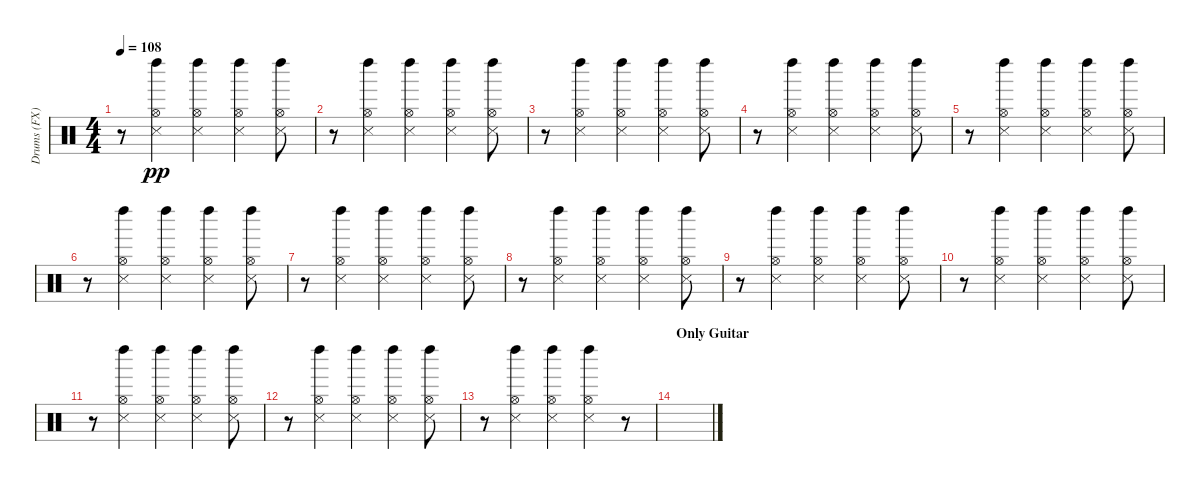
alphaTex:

\track ("Drums (FX)" "Drums (FX)") {instrument percussion}
\staff {score}
\articulation defaults
\ts (4 4)
\tempo 108
\clef neutral
\ks c
r.8{dy pp} ("Hi-Hat (open)" "Snare (side stick) 3" "Left Maraca (hit)").4 ("Hi-Hat (open)" "Snare (side stick) 3" "Left Maraca (hit)").4 ("Hi-Hat (open)" "Snare (side stick) 3" "Left Maraca (hit)").4 ("Hi-Hat (open)" "Snare (side stick) 3" "Left Maraca (hit)").8 |
r.8 ("Hi-Hat (open)" "Snare (side stick) 3" "Left Maraca (hit)").4 ("Hi-Hat (open)" "Snare (side stick) 3" "Left Maraca (hit)").4 ("Hi-Hat (open)" "Snare (side stick) 3" "Left Maraca (hit)").4 ("Hi-Hat (open)" "Snare (side stick) 3" "Left Maraca (hit)").8 |
r.8 ("Hi-Hat (open)" "Snare (side stick) 3" "Left Maraca (hit)").4 ("Hi-Hat (open)" "Snare (side stick) 3" "Left Maraca (hit)").4 ("Hi-Hat (open)" "Snare (side stick) 3" "Left Maraca (hit)").4 ("Hi-Hat (open)" "Snare (side stick) 3" "Left Maraca (hit)").8 |
r.8 ("Hi-Hat (open)" "Snare (side stick) 3" "Left Maraca (hit)").4 ("Hi-Hat (open)" "Snare (side stick) 3" "Left Maraca (hit)").4 ("Hi-Hat (open)" "Snare (side stick) 3" "Left Maraca (hit)").4 ("Hi-Hat (open)" "Snare (side stick) 3" "Left Maraca (hit)").8 |
r.8 ("Hi-Hat (open)" "Snare (side stick) 3" "Left Maraca (hit)").4 ("Hi-Hat (open)" "Snare (side stick) 3" "Left Maraca (hit)").4 ("Hi-Hat (open)" "Snare (side stick) 3" "Left Maraca (hit)").4 ("Hi-Hat (open)" "Snare (side stick) 3" "Left Maraca (hit)").8 |
r.8 ("Hi-Hat (open)" "Snare (side stick) 3" "Left Maraca (hit)").4 ("Hi-Hat (open)" "Snare (side stick) 3" "Left Maraca (hit)").4 ("Hi-Hat (open)" "Snare (side stick) 3" "Left Maraca (hit)").4 ("Hi-Hat (open)" "Snare (side stick) 3" "Left Maraca (hit)").8 |
r.8 ("Hi-Hat (open)" "Snare (side stick) 3" "Left Maraca (hit)").4 ("Hi-Hat (open)" "Snare (side stick) 3" "Left Maraca (hit)").4 ("Hi-Hat (open)" "Snare (side stick) 3" "Left Maraca (hit)").4 ("Hi-Hat (open)" "Snare (side stick) 3" "Left Maraca (hit)").8 |
r.8 ("Hi-Hat (open)" "Snare (side stick) 3" "Left Maraca (hit)").4 ("Hi-Hat (open)" "Snare (side stick) 3" "Left Maraca (hit)").4 ("Hi-Hat (open)" "Snare (side stick) 3" "Left Maraca (hit)").4 ("Hi-Hat (open)" "Snare (side stick) 3" "Left Maraca (hit)").8 |
r.8 ("Hi-Hat (open)" "Snare (side stick) 3" "Left Maraca (hit)").4 ("Hi-Hat (open)" "Snare (side stick) 3" "Left Maraca (hit)").4 ("Hi-Hat (open)" "Snare (side stick) 3" "Left Maraca (hit)").4 ("Hi-Hat (open)" "Snare (side stick) 3" "Left Maraca (hit)").8 |
r.8 ("Hi-Hat (open)" "Snare (side stick) 3" "Left Maraca (hit)").4 ("Hi-Hat (open)" "Snare (side stick) 3" "Left Maraca (hit)").4 ("Hi-Hat (open)" "Snare (side stick) 3" "Left Maraca (hit)").4 ("Hi-Hat (open)" "Snare (side stick) 3" "Left Maraca (hit)").8 |
r.8 ("Hi-Hat (open)" "Snare (side stick) 3" "Left Maraca (hit)").4 ("Hi-Hat (open)" "Snare (side stick) 3" "Left Maraca (hit)").4 ("Hi-Hat (open)" "Snare (side stick) 3" "Left Maraca (hit)").4 ("Hi-Hat (open)" "Snare (side stick) 3" "Left Maraca (hit)").8 |
r.8 ("Hi-Hat (open)" "Snare (side stick) 3" "Left Maraca (hit)").4 ("Hi-Hat (open)" "Snare (side stick) 3" "Left Maraca (hit)").4 ("Hi-Hat (open)" "Snare (side stick) 3" "Left Maraca (hit)").4 ("Hi-Hat (open)" "Snare (side stick) 3" "Left Maraca (hit)").8 |
r.8 ("Hi-Hat (open)" "Snare (side stick) 3" "Left Maraca (hit)").4 ("Hi-Hat (open)" "Snare (side stick) 3" "Left Maraca (hit)").4 ("Hi-Hat (open)" "Snare (side stick) 3" "Left Maraca (hit)").4 r.8 |
\section ("" "Only Guitar")
